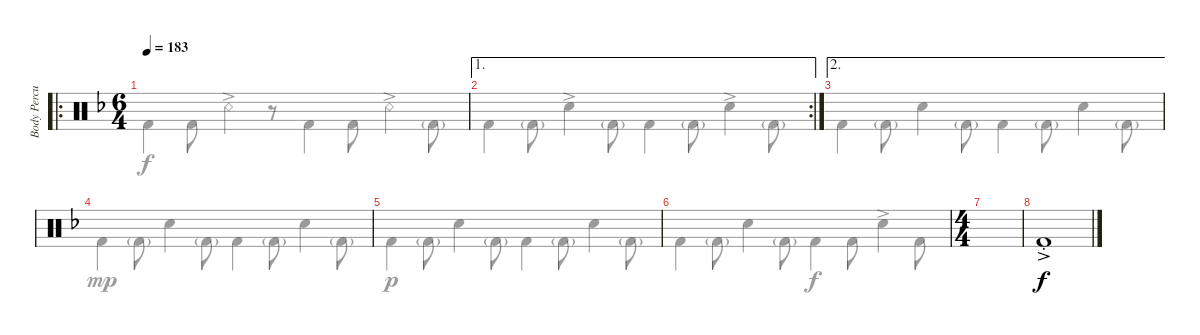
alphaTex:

\track ("Body Percussion" "Body Percu") {instrument percussion}
\staff {score}
\articulation defaults
\voice
\ro
\ts (6 4)
\tempo 183
\clef neutral
\ks dminor
|
\ae 1
\rc 2
|
\ae 2
|
|
|
|
\ts (4 4)
|
"Kick (hit) 2"{ac st}.1{dy f}
\voice
\clef neutral
\ottava regular
\simile none
\ks dminor "Kick (hit) 2".4{dy f} "Kick (hit) 2".8 "Snare (rim shot)"{ac}.4
r.8 "Kick (hit) 2".4 "Kick (hit) 2".8 "Snare (rim shot)"{ac}.4 "Kick (hit) 2"{g}.8 |
"Kick (hit) 2".4 "Kick (hit) 2"{g}.8 "Snare (hit) 2"{ac}.4 "Kick (hit) 2"{g}.8 "Kick (hit) 2".4 "Kick (hit) 2"{g}.8 "Snare (hit) 2"{ac}.4 "Kick (hit) 2"{g}.8 |
"Kick (hit) 2".4 "Kick (hit) 2"{g}.8 "Snare (hit) 2".4 "Kick (hit) 2"{g}.8 "Kick (hit) 2".4 "Kick (hit) 2"{g}.8 "Snare (hit) 2".4 "Kick (hit) 2"{g}.8 |
"Kick (hit) 2".4{dy mp} "Kick (hit) 2"{g}.8 "Snare (hit) 2".4 "Kick (hit) 2"{g}.8 "Kick (hit) 2".4 "Kick (hit) 2"{g}.8 "Snare (hit) 2".4 "Kick (hit) 2"{g}.8 |
"Kick (hit) 2".4{dy p} "Kick (hit) 2"{g}.8 "Snare (hit) 2".4 "Kick (hit) 2"{g}.8 "Kick (hit) 2".4 "Kick (hit) 2"{g}.8 "Snare (hit) 2".4 "Kick (hit) 2"{g}.8 |
"Kick (hit) 2".4 "Kick (hit) 2"{g}.8 "Snare (hit) 2".4 "Kick (hit) 2"{g}.8 "Kick (hit) 2".4{dy f} "Kick (hit) 2".8 "Snare (hit) 2"{ac}.4 "Kick (hit) 2".8 |
|
